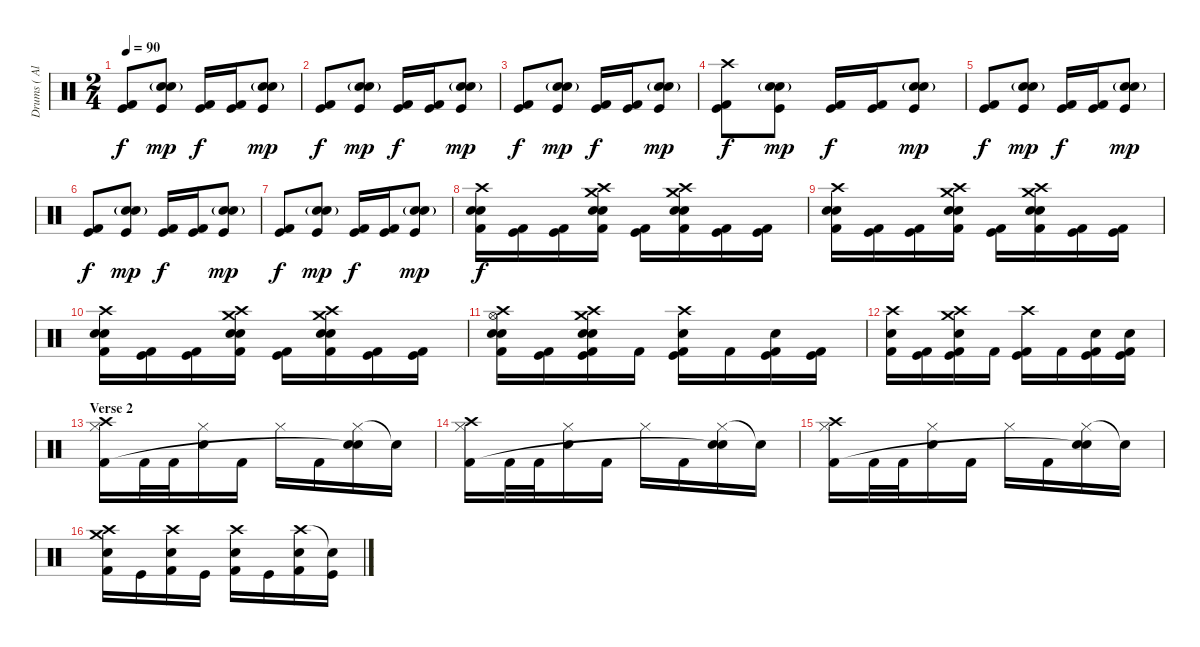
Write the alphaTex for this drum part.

\track ("Drums ( Alex Holzwarth)" "Drums ( Al") {instrument percussion}
\staff {score}
\articulation defaults
\ts (2 4)
\tempo 90
\clef neutral
\ks c
("Kick (hit) 2" "Kick (hit)").8{dy f} ("Electric Snare (hit)"{g} "Snare (hit) 2" "Kick (hit)").8{dy mp} ("Kick (hit) 2" "Kick (hit)").16{dy f} ("Kick (hit) 2" "Kick (hit)").16 ("Electric Snare (hit)"{g} "Snare (hit) 2" "Kick (hit)").8{dy mp} |
("Kick (hit) 2" "Kick (hit)").8{dy f} ("Electric Snare (hit)"{g} "Snare (hit) 2" "Kick (hit)").8{dy mp} ("Kick (hit) 2" "Kick (hit)").16{dy f} ("Kick (hit) 2" "Kick (hit)").16 ("Electric Snare (hit)"{g} "Snare (hit) 2" "Kick (hit)").8{dy mp} |
("Kick (hit) 2" "Kick (hit)").8{dy f} ("Electric Snare (hit)"{g} "Snare (hit) 2" "Kick (hit)").8{dy mp} ("Kick (hit) 2" "Kick (hit)").16{dy f} ("Kick (hit) 2" "Kick (hit)").16 ("Electric Snare (hit)"{g} "Snare (hit) 2" "Kick (hit)").8{dy mp} |
("Crash high (hit)" "Kick (hit) 2" "Kick (hit)").8{dy f} ("Electric Snare (hit)"{g} "Snare (hit) 2" "Kick (hit)").8{dy mp} ("Kick (hit) 2" "Kick (hit)").16{dy f} ("Kick (hit) 2" "Kick (hit)").16 ("Electric Snare (hit)"{g} "Snare (hit) 2" "Kick (hit)").8{dy mp} |
("Kick (hit) 2" "Kick (hit)").8{dy f} ("Electric Snare (hit)"{g} "Snare (hit) 2" "Kick (hit)").8{dy mp} ("Kick (hit) 2" "Kick (hit)").16{dy f} ("Kick (hit) 2" "Kick (hit)").16 ("Electric Snare (hit)"{g} "Snare (hit) 2" "Kick (hit)").8{dy mp} |
("Kick (hit) 2" "Kick (hit)").8{dy f} ("Electric Snare (hit)"{g} "Snare (hit) 2" "Kick (hit)").8{dy mp} ("Kick (hit) 2" "Kick (hit)").16{dy f} ("Kick (hit) 2" "Kick (hit)").16 ("Electric Snare (hit)"{g} "Snare (hit) 2" "Kick (hit)").8{dy mp} |
("Kick (hit) 2" "Kick (hit)").8{dy f} ("Electric Snare (hit)"{g} "Snare (hit) 2" "Kick (hit)").8{dy mp} ("Kick (hit) 2" "Kick (hit)").16{dy f} ("Kick (hit) 2" "Kick (hit)").16 ("Electric Snare (hit)"{g} "Snare (hit) 2" "Kick (hit)").8{dy mp} |
("Crash high (hit)" "Electric Snare (hit)" "Snare (hit) 2" "Kick (hit) 2").16{dy f} ("Kick (hit) 2" "Kick (hit)").16 ("Kick (hit) 2" "Kick (hit)").16 ("Crash high (hit)" "Crash medium (hit)" "Electric Snare (hit)" "Snare (hit) 2" "Kick (hit) 2").16 ("Kick (hit) 2" "Kick (hit)").16 ("Crash high (hit)" "Crash medium (hit)" "Electric Snare (hit)" "Snare (hit) 2" "Kick (hit) 2").16 ("Kick (hit) 2" "Kick (hit)").16 ("Kick (hit) 2" "Kick (hit)").16 |
("Crash high (hit)" "Electric Snare (hit)" "Snare (hit) 2" "Kick (hit) 2").16 ("Kick (hit) 2" "Kick (hit)").16 ("Kick (hit) 2" "Kick (hit)").16 ("Crash high (hit)" "Crash medium (hit)" "Electric Snare (hit)" "Snare (hit) 2" "Kick (hit) 2").16 ("Kick (hit) 2" "Kick (hit)").16 ("Crash high (hit)" "Crash medium (hit)" "Electric Snare (hit)" "Snare (hit) 2" "Kick (hit) 2").16 ("Kick (hit) 2" "Kick (hit)").16 ("Kick (hit) 2" "Kick (hit)").16 |
("Crash high (hit)" "Electric Snare (hit)" "Snare (hit) 2" "Kick (hit) 2").16 ("Kick (hit) 2" "Kick (hit)").16 ("Kick (hit) 2" "Kick (hit)").16 ("Crash high (hit)" "Crash medium (hit)" "Electric Snare (hit)" "Snare (hit) 2" "Kick (hit) 2").16 ("Kick (hit) 2" "Kick (hit)").16 ("Crash high (hit)" "Crash medium (hit)" "Electric Snare (hit)" "Snare (hit) 2" "Kick (hit) 2").16 ("Kick (hit) 2" "Kick (hit)").16 ("Kick (hit) 2" "Kick (hit)").16 |
("Crash high (hit)" "Hi-Hat (open)" "Electric Snare (hit)" "Snare (hit) 2" "Kick (hit) 2").16 ("Kick (hit) 2" "Kick (hit)").16 ("Crash high (hit)" "Crash medium (hit)" "Electric Snare (hit)" "Snare (hit) 2" "Kick (hit) 2" "Kick (hit)").16 "Kick (hit) 2".16 ("Crash high (hit)" "Snare (hit) 2" "Kick (hit) 2" "Kick (hit)").16 "Kick (hit) 2".16 ("Snare (hit) 2" "Kick (hit) 2" "Kick (hit)").16 ("Kick (hit) 2" "Kick (hit)").16 |
("Crash high (hit)" "Electric Snare (hit)" "Kick (hit) 2").16 ("Kick (hit) 2" "Kick (hit)").16 ("Crash high (hit)" "Crash medium (hit)" "Snare (hit) 2" "Kick (hit) 2" "Kick (hit)").16 "Kick (hit) 2".16 ("Crash high (hit)" "Kick (hit) 2" "Kick (hit)").16 "Kick (hit) 2".16 ("Electric Snare (hit)" "Kick (hit) 2" "Kick (hit)").16 ("Electric Snare (hit)" "Kick (hit) 2" "Kick (hit)").16 |
\section ("" "Verse 2")
("Crash high (hit)" "Hi-Hat (closed)" "Kick (hit) 2").16 "Kick (hit) 2".32 "Kick (hit) 2".32 ("Hi-Hat (closed)" "Electric Snare (hit)").16 "Kick (hit) 2".16 "Hi-Hat (closed)".16 "Kick (hit) 2".16 ("Hi-Hat (closed)" "Electric Snare (hit)" "Snare (hit)"{t}).16 "Snare (hit)"{t}.16 |
("Crash high (hit)" "Hi-Hat (closed)" "Kick (hit) 2").16 "Kick (hit) 2".32 "Kick (hit) 2".32 ("Hi-Hat (closed)" "Electric Snare (hit)").16 "Kick (hit) 2".16 "Hi-Hat (closed)".16 "Kick (hit) 2".16 ("Hi-Hat (closed)" "Electric Snare (hit)" "Snare (hit)"{t}).16 "Snare (hit)"{t}.16 |
("Crash high (hit)" "Hi-Hat (closed)" "Kick (hit) 2").16 "Kick (hit) 2".32 "Kick (hit) 2".32 ("Hi-Hat (closed)" "Electric Snare (hit)").16 "Kick (hit) 2".16 "Hi-Hat (closed)".16 "Kick (hit) 2".16 ("Hi-Hat (closed)" "Electric Snare (hit)" "Snare (hit)"{t}).16 "Snare (hit)"{t}.16 |
("Crash high (hit)" "Crash medium (hit)" "Snare (hit) 2" "Kick (hit) 2").16 "Kick (hit)".16 ("Crash high (hit)" "Snare (hit) 2" "Kick (hit) 2").16 "Kick (hit)".16 ("Crash high (hit)" "Snare (hit) 2" "Kick (hit) 2").16 "Kick (hit)".16 ("Crash high (hit)" "Snare (hit) 2" "Kick (hit) 2").16 ("Snare (hit)"{t} "Kick (hit)").16
